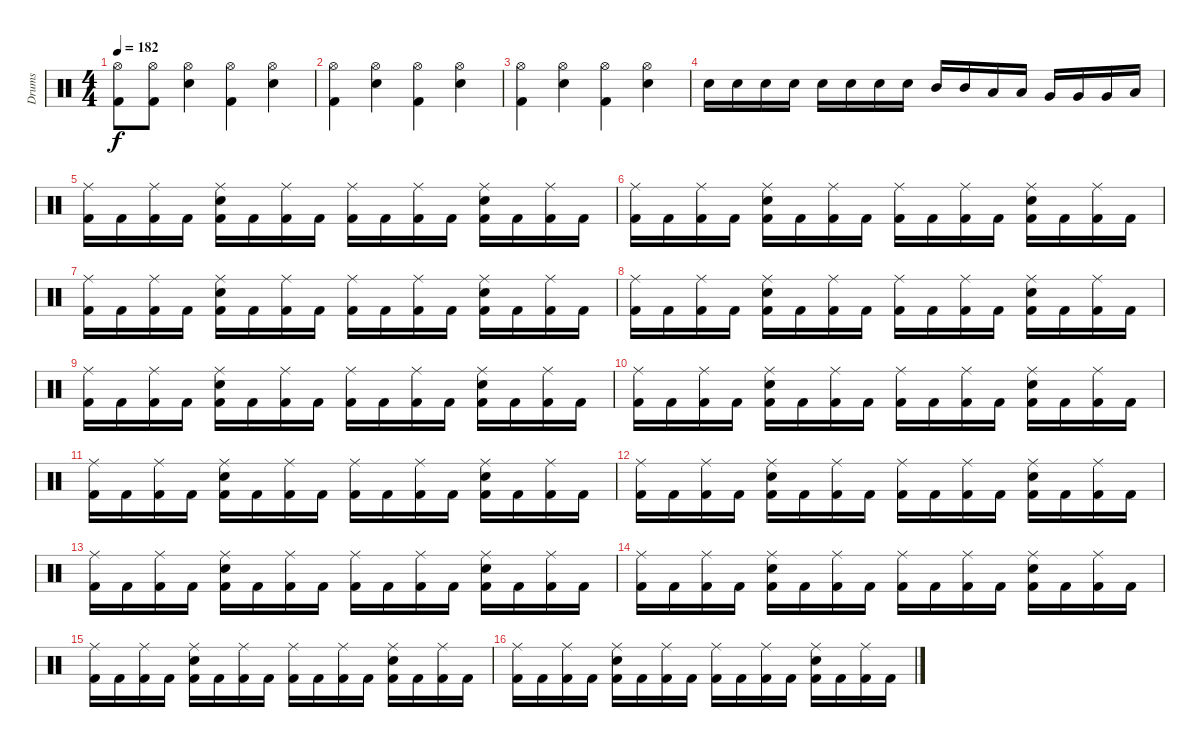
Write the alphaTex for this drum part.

\track ("Drums" "Drums") {instrument percussion}
\staff {score}
\articulation defaults
\ts (4 4)
\tempo 182
\clef neutral
\ks c
("Kick (hit) 2"{t} "Hi-Hat (open)"{t}).8{dy f} ("Kick (hit) 2" "Hi-Hat (open)").8 ("Snare (hit) 2" "Hi-Hat (open)").4 ("Kick (hit) 2" "Hi-Hat (open)").4 ("Snare (hit) 2" "Hi-Hat (open)").4 |
("Kick (hit) 2" "Hi-Hat (open)").4 ("Snare (hit) 2" "Hi-Hat (open)").4 ("Kick (hit) 2" "Hi-Hat (open)").4 ("Snare (hit) 2" "Hi-Hat (open)").4 |
("Kick (hit) 2" "Hi-Hat (open)").4 ("Snare (hit) 2" "Hi-Hat (open)").4 ("Kick (hit) 2" "Hi-Hat (open)").4 ("Snare (hit) 2" "Hi-Hat (open)").4 |
"Electric Snare (hit)".16 "Electric Snare (hit)".16 "Electric Snare (hit)".16 "Electric Snare (hit)".16 "Snare (hit) 2".16 "Snare (hit) 2".16 "Snare (hit) 2".16 "Snare (hit) 2".16 "Mid Tom (hit)".16 "Mid Tom (hit)".16 "Low Tom (hit)".16 "Low Tom (hit)".16 "Very Low Tom (hit)".16 "Very Low Tom (hit)".16 "Very Low Tom (hit)".16 "Low Floor Tom (hit)".16 |
("Kick (hit) 2" "Ride (middle)").16 "Kick (hit) 2".16 ("Kick (hit) 2" "Ride (middle)").16 "Kick (hit) 2".16 ("Kick (hit) 2" "Snare (hit) 2" "Ride (middle)").16 "Kick (hit) 2".16 ("Kick (hit) 2" "Ride (middle)").16 "Kick (hit) 2".16 ("Kick (hit) 2" "Ride (middle)").16 "Kick (hit) 2".16 ("Kick (hit) 2" "Ride (middle)").16 "Kick (hit) 2".16 ("Kick (hit) 2" "Snare (hit) 2" "Ride (middle)").16 "Kick (hit) 2".16 ("Kick (hit) 2" "Ride (middle)").16 "Kick (hit) 2".16 |
("Kick (hit) 2" "Ride (middle)").16 "Kick (hit) 2".16 ("Kick (hit) 2" "Ride (middle)").16 "Kick (hit) 2".16 ("Kick (hit) 2" "Snare (hit) 2" "Ride (middle)").16 "Kick (hit) 2".16 ("Kick (hit) 2" "Ride (middle)").16 "Kick (hit) 2".16 ("Kick (hit) 2" "Ride (middle)").16 "Kick (hit) 2".16 ("Kick (hit) 2" "Ride (middle)").16 "Kick (hit) 2".16 ("Kick (hit) 2" "Snare (hit) 2" "Ride (middle)").16 "Kick (hit) 2".16 ("Kick (hit) 2" "Ride (middle)").16 "Kick (hit) 2".16 |
("Kick (hit) 2" "Ride (middle)").16 "Kick (hit) 2".16 ("Kick (hit) 2" "Ride (middle)").16 "Kick (hit) 2".16 ("Kick (hit) 2" "Snare (hit) 2" "Ride (middle)").16 "Kick (hit) 2".16 ("Kick (hit) 2" "Ride (middle)").16 "Kick (hit) 2".16 ("Kick (hit) 2" "Ride (middle)").16 "Kick (hit) 2".16 ("Kick (hit) 2" "Ride (middle)").16 "Kick (hit) 2".16 ("Kick (hit) 2" "Snare (hit) 2" "Ride (middle)").16 "Kick (hit) 2".16 ("Kick (hit) 2" "Ride (middle)").16 "Kick (hit) 2".16 |
("Kick (hit) 2" "Ride (middle)").16 "Kick (hit) 2".16 ("Kick (hit) 2" "Ride (middle)").16 "Kick (hit) 2".16 ("Kick (hit) 2" "Snare (hit) 2" "Ride (middle)").16 "Kick (hit) 2".16 ("Kick (hit) 2" "Ride (middle)").16 "Kick (hit) 2".16 ("Kick (hit) 2" "Ride (middle)").16 "Kick (hit) 2".16 ("Kick (hit) 2" "Ride (middle)").16 "Kick (hit) 2".16 ("Kick (hit) 2" "Snare (hit) 2" "Ride (middle)").16 "Kick (hit) 2".16 ("Kick (hit) 2" "Ride (middle)").16 "Kick (hit) 2".16 |
("Kick (hit) 2" "Ride (middle)").16 "Kick (hit) 2".16 ("Kick (hit) 2" "Ride (middle)").16 "Kick (hit) 2".16 ("Kick (hit) 2" "Snare (hit) 2" "Ride (middle)").16 "Kick (hit) 2".16 ("Kick (hit) 2" "Ride (middle)").16 "Kick (hit) 2".16 ("Kick (hit) 2" "Ride (middle)").16 "Kick (hit) 2".16 ("Kick (hit) 2" "Ride (middle)").16 "Kick (hit) 2".16 ("Kick (hit) 2" "Snare (hit) 2" "Ride (middle)").16 "Kick (hit) 2".16 ("Kick (hit) 2" "Ride (middle)").16 "Kick (hit) 2".16 |
("Kick (hit) 2" "Ride (middle)").16 "Kick (hit) 2".16 ("Kick (hit) 2" "Ride (middle)").16 "Kick (hit) 2".16 ("Kick (hit) 2" "Snare (hit) 2" "Ride (middle)").16 "Kick (hit) 2".16 ("Kick (hit) 2" "Ride (middle)").16 "Kick (hit) 2".16 ("Kick (hit) 2" "Ride (middle)").16 "Kick (hit) 2".16 ("Kick (hit) 2" "Ride (middle)").16 "Kick (hit) 2".16 ("Kick (hit) 2" "Snare (hit) 2" "Ride (middle)").16 "Kick (hit) 2".16 ("Kick (hit) 2" "Ride (middle)").16 "Kick (hit) 2".16 |
("Kick (hit) 2" "Ride (middle)").16 "Kick (hit) 2".16 ("Kick (hit) 2" "Ride (middle)").16 "Kick (hit) 2".16 ("Kick (hit) 2" "Snare (hit) 2" "Ride (middle)").16 "Kick (hit) 2".16 ("Kick (hit) 2" "Ride (middle)").16 "Kick (hit) 2".16 ("Kick (hit) 2" "Ride (middle)").16 "Kick (hit) 2".16 ("Kick (hit) 2" "Ride (middle)").16 "Kick (hit) 2".16 ("Kick (hit) 2" "Snare (hit) 2" "Ride (middle)").16 "Kick (hit) 2".16 ("Kick (hit) 2" "Ride (middle)").16 "Kick (hit) 2".16 |
("Kick (hit) 2" "Ride (middle)").16 "Kick (hit) 2".16 ("Kick (hit) 2" "Ride (middle)").16 "Kick (hit) 2".16 ("Kick (hit) 2" "Snare (hit) 2" "Ride (middle)").16 "Kick (hit) 2".16 ("Kick (hit) 2" "Ride (middle)").16 "Kick (hit) 2".16 ("Kick (hit) 2" "Ride (middle)").16 "Kick (hit) 2".16 ("Kick (hit) 2" "Ride (middle)").16 "Kick (hit) 2".16 ("Kick (hit) 2" "Snare (hit) 2" "Ride (middle)").16 "Kick (hit) 2".16 ("Kick (hit) 2" "Ride (middle)").16 "Kick (hit) 2".16 |
("Kick (hit) 2" "Ride (middle)").16 "Kick (hit) 2".16 ("Kick (hit) 2" "Ride (middle)").16 "Kick (hit) 2".16 ("Kick (hit) 2" "Snare (hit) 2" "Ride (middle)").16 "Kick (hit) 2".16 ("Kick (hit) 2" "Ride (middle)").16 "Kick (hit) 2".16 ("Kick (hit) 2" "Ride (middle)").16 "Kick (hit) 2".16 ("Kick (hit) 2" "Ride (middle)").16 "Kick (hit) 2".16 ("Kick (hit) 2" "Snare (hit) 2" "Ride (middle)").16 "Kick (hit) 2".16 ("Kick (hit) 2" "Ride (middle)").16 "Kick (hit) 2".16 |
("Kick (hit) 2" "Ride (middle)").16 "Kick (hit) 2".16 ("Kick (hit) 2" "Ride (middle)").16 "Kick (hit) 2".16 ("Kick (hit) 2" "Snare (hit) 2" "Ride (middle)").16 "Kick (hit) 2".16 ("Kick (hit) 2" "Ride (middle)").16 "Kick (hit) 2".16 ("Kick (hit) 2" "Ride (middle)").16 "Kick (hit) 2".16 ("Kick (hit) 2" "Ride (middle)").16 "Kick (hit) 2".16 ("Kick (hit) 2" "Snare (hit) 2" "Ride (middle)").16 "Kick (hit) 2".16 ("Kick (hit) 2" "Ride (middle)").16 "Kick (hit) 2".16 |
("Kick (hit) 2" "Ride (middle)").16 "Kick (hit) 2".16 ("Kick (hit) 2" "Ride (middle)").16 "Kick (hit) 2".16 ("Kick (hit) 2" "Snare (hit) 2" "Ride (middle)").16 "Kick (hit) 2".16 ("Kick (hit) 2" "Ride (middle)").16 "Kick (hit) 2".16 ("Kick (hit) 2" "Ride (middle)").16 "Kick (hit) 2".16 ("Kick (hit) 2" "Ride (middle)").16 "Kick (hit) 2".16 ("Kick (hit) 2" "Snare (hit) 2" "Ride (middle)").16 "Kick (hit) 2".16 ("Kick (hit) 2" "Ride (middle)").16 "Kick (hit) 2".16 |
("Kick (hit) 2" "Ride (middle)").16 "Kick (hit) 2".16 ("Kick (hit) 2" "Ride (middle)").16 "Kick (hit) 2".16 ("Kick (hit) 2" "Snare (hit) 2" "Ride (middle)").16 "Kick (hit) 2".16 ("Kick (hit) 2" "Ride (middle)").16 "Kick (hit) 2".16 ("Kick (hit) 2" "Ride (middle)").16 "Kick (hit) 2".16 ("Kick (hit) 2" "Ride (middle)").16 "Kick (hit) 2".16 ("Kick (hit) 2" "Snare (hit) 2" "Ride (middle)").16 "Kick (hit) 2".16 ("Kick (hit) 2" "Ride (middle)").16 "Kick (hit) 2".16
